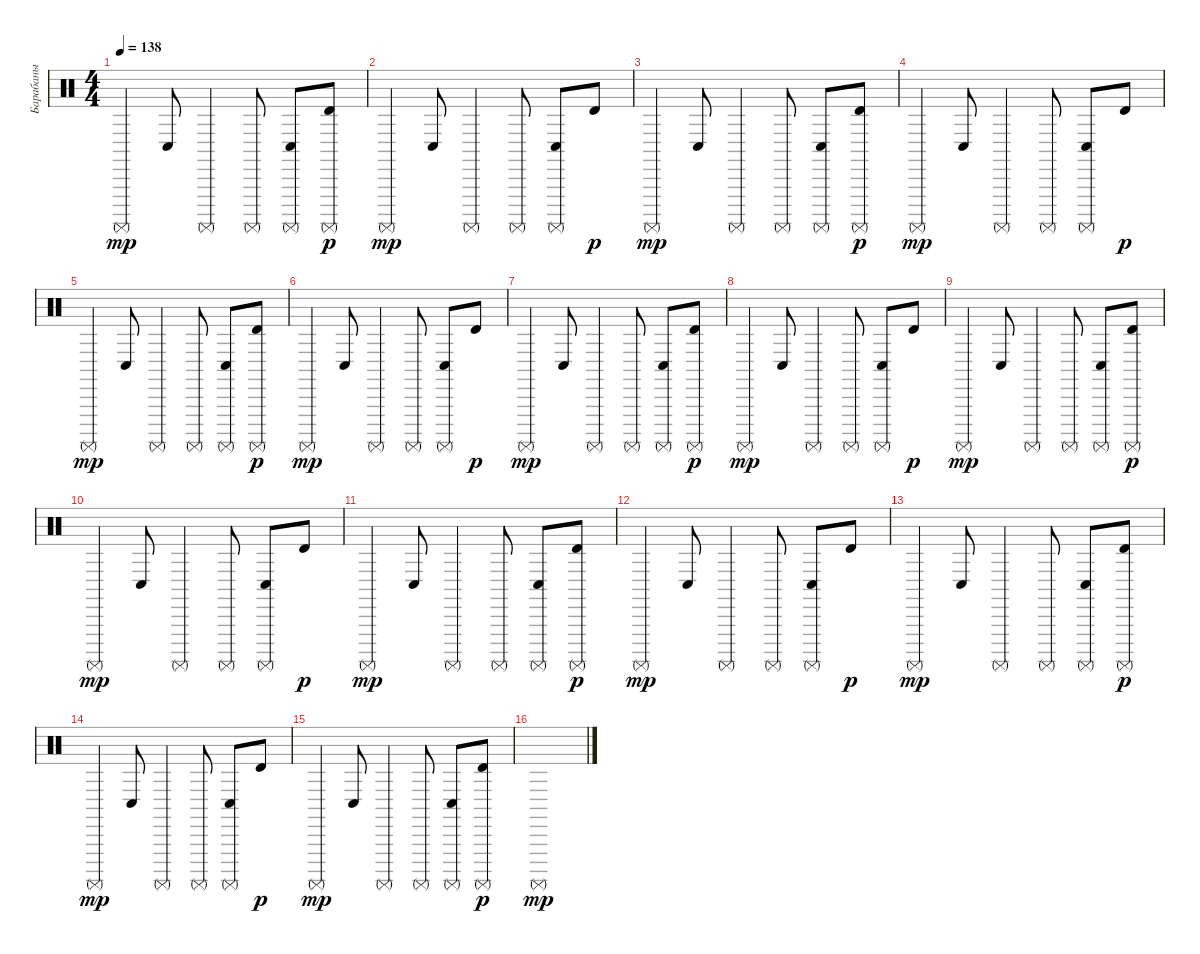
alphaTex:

\track ("Барабаны" "Барабаны") {instrument percussion}
\staff {score}
\articulation defaults
\ts (4 4)
\tempo 138
\clef neutral
\ks c "Surdo (mute)".4{dy mp} "Conga low (hit)".8 "Surdo (mute)".4 "Surdo (mute)".8
("Surdo (mute)" "Conga low (hit)").8 ("Surdo (mute)" "Timbale high (hit)").8{dy p} |
"Surdo (mute)".4{dy mp} "Conga low (hit)".8 "Surdo (mute)".4 "Surdo (mute)".8 ("Surdo (mute)" "Conga low (hit)").8 "Timbale high (hit)".8{dy p} |
"Surdo (mute)".4{dy mp} "Conga low (hit)".8 "Surdo (mute)".4 "Surdo (mute)".8 ("Surdo (mute)" "Conga low (hit)").8 ("Surdo (mute)" "Timbale high (hit)").8{dy p} |
"Surdo (mute)".4{dy mp} "Conga low (hit)".8 "Surdo (mute)".4 "Surdo (mute)".8 ("Surdo (mute)" "Conga low (hit)").8 "Timbale high (hit)".8{dy p} |
"Surdo (mute)".4{dy mp} "Conga low (hit)".8 "Surdo (mute)".4 "Surdo (mute)".8 ("Surdo (mute)" "Conga low (hit)").8 ("Surdo (mute)" "Timbale high (hit)").8{dy p} |
"Surdo (mute)".4{dy mp} "Conga low (hit)".8 "Surdo (mute)".4 "Surdo (mute)".8 ("Surdo (mute)" "Conga low (hit)").8 "Timbale high (hit)".8{dy p} |
"Surdo (mute)".4{dy mp} "Conga low (hit)".8 "Surdo (mute)".4 "Surdo (mute)".8 ("Surdo (mute)" "Conga low (hit)").8 ("Surdo (mute)" "Timbale high (hit)").8{dy p} |
"Surdo (mute)".4{dy mp} "Conga low (hit)".8 "Surdo (mute)".4 "Surdo (mute)".8 ("Surdo (mute)" "Conga low (hit)").8 "Timbale high (hit)".8{dy p} |
"Surdo (mute)".4{dy mp} "Conga low (hit)".8 "Surdo (mute)".4 "Surdo (mute)".8 ("Surdo (mute)" "Conga low (hit)").8 ("Surdo (mute)" "Timbale high (hit)").8{dy p} |
"Surdo (mute)".4{dy mp} "Conga low (hit)".8 "Surdo (mute)".4 "Surdo (mute)".8 ("Surdo (mute)" "Conga low (hit)").8 "Timbale high (hit)".8{dy p} |
"Surdo (mute)".4{dy mp} "Conga low (hit)".8 "Surdo (mute)".4 "Surdo (mute)".8 ("Surdo (mute)" "Conga low (hit)").8 ("Surdo (mute)" "Timbale high (hit)").8{dy p} |
"Surdo (mute)".4{dy mp} "Conga low (hit)".8 "Surdo (mute)".4 "Surdo (mute)".8 ("Surdo (mute)" "Conga low (hit)").8 "Timbale high (hit)".8{dy p} |
"Surdo (mute)".4{dy mp} "Conga low (hit)".8 "Surdo (mute)".4 "Surdo (mute)".8 ("Surdo (mute)" "Conga low (hit)").8 ("Surdo (mute)" "Timbale high (hit)").8{dy p} |
"Surdo (mute)".4{dy mp} "Conga low (hit)".8 "Surdo (mute)".4 "Surdo (mute)".8 ("Surdo (mute)" "Conga low (hit)").8 "Timbale high (hit)".8{dy p} |
"Surdo (mute)".4{dy mp} "Conga low (hit)".8 "Surdo (mute)".4 "Surdo (mute)".8 ("Surdo (mute)" "Conga low (hit)").8 ("Surdo (mute)" "Timbale high (hit)").8{dy p} |
"Surdo (mute)".1{dy mp}
